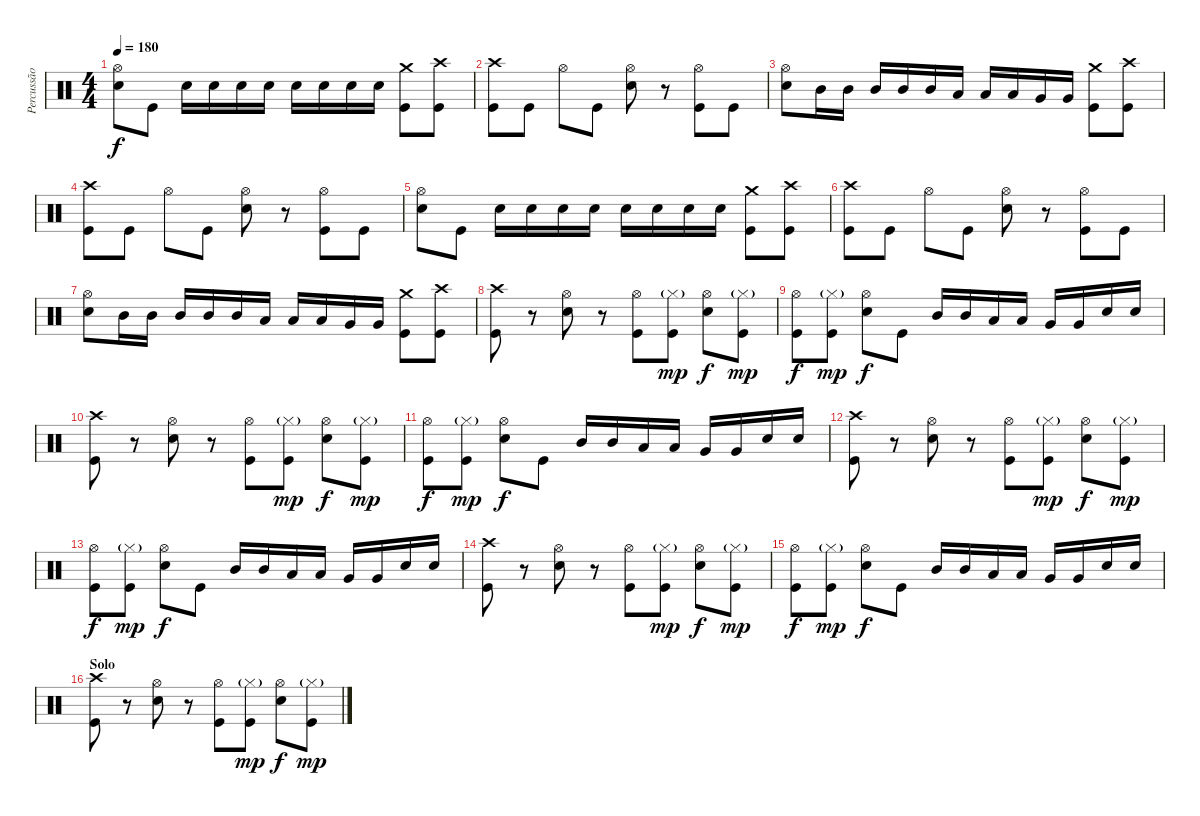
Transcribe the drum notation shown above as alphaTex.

\track ("Percussão" "Percussão") {mute instrument percussion}
\staff {score}
\articulation defaults
\ts (4 4)
\tempo 180
\clef neutral
\ks c
("Hi-Hat (open)" "Electric Snare (hit)").8{dy f} "Kick (hit)".8 "Electric Snare (hit)".16 "Electric Snare (hit)".16 "Electric Snare (hit)".16 "Electric Snare (hit)".16 "Electric Snare (hit)".16 "Electric Snare (hit)".16 "Electric Snare (hit)".16 "Electric Snare (hit)".16 ("Crash medium (hit)" "Kick (hit)").8 ("Crash high (hit)" "Kick (hit)").8 |
("Crash high (hit)" "Kick (hit)").8 "Kick (hit)".8 "Hi-Hat (open)".8 "Kick (hit)".8 ("Hi-Hat (open)" "Electric Snare (hit)").8 r.8 ("Hi-Hat (open)" "Kick (hit)").8 "Kick (hit)".8 |
("Hi-Hat (open)" "Electric Snare (hit)").8 "Mid Tom (hit)".16 "Mid Tom (hit)".16 "Mid Tom (hit)".16 "Mid Tom (hit)".16 "Mid Tom (hit)".16 "Low Tom (hit)".16 "Low Tom (hit)".16 "Low Tom (hit)".16 "Very Low Tom (hit)".16 "Very Low Tom (hit)".16 ("Crash medium (hit)" "Kick (hit)").8 ("Crash high (hit)" "Kick (hit)").8 |
("Crash high (hit)" "Kick (hit)").8 "Kick (hit)".8 "Hi-Hat (open)".8 "Kick (hit)".8 ("Hi-Hat (open)" "Electric Snare (hit)").8 r.8 ("Hi-Hat (open)" "Kick (hit)").8 "Kick (hit)".8 |
("Hi-Hat (open)" "Electric Snare (hit)").8 "Kick (hit)".8 "Electric Snare (hit)".16 "Electric Snare (hit)".16 "Electric Snare (hit)".16 "Electric Snare (hit)".16 "Electric Snare (hit)".16 "Electric Snare (hit)".16 "Electric Snare (hit)".16 "Electric Snare (hit)".16 ("Crash medium (hit)" "Kick (hit)").8 ("Crash high (hit)" "Kick (hit)").8 |
("Crash high (hit)" "Kick (hit)").8 "Kick (hit)".8 "Hi-Hat (open)".8 "Kick (hit)".8 ("Hi-Hat (open)" "Electric Snare (hit)").8 r.8 ("Hi-Hat (open)" "Kick (hit)").8 "Kick (hit)".8 |
("Hi-Hat (open)" "Electric Snare (hit)").8 "Mid Tom (hit)".16 "Mid Tom (hit)".16 "Mid Tom (hit)".16 "Mid Tom (hit)".16 "Mid Tom (hit)".16 "Low Tom (hit)".16 "Low Tom (hit)".16 "Low Tom (hit)".16 "Very Low Tom (hit)".16 "Very Low Tom (hit)".16 ("Crash medium (hit)" "Kick (hit)").8 ("Crash high (hit)" "Kick (hit)").8 |
("Crash high (hit)" "Kick (hit)").8 r.8 ("Hi-Hat (open)" "Electric Snare (hit)").8 r.8 ("Hi-Hat (open)" "Kick (hit)").8 ("Hi-Hat (closed)"{g} "Kick (hit)").8{dy mp} ("Hi-Hat (open)" "Electric Snare (hit)").8{dy f} ("Hi-Hat (closed)"{g} "Kick (hit)").8{dy mp} |
("Hi-Hat (open)" "Kick (hit)").8{dy f} ("Hi-Hat (closed)"{g} "Kick (hit)").8{dy mp} ("Hi-Hat (open)" "Electric Snare (hit)").8{dy f} "Kick (hit)".8 "Mid Tom (hit)".16 "Mid Tom (hit)".16 "Low Tom (hit)".16 "Low Tom (hit)".16 "Very Low Tom (hit)".16 "Very Low Tom (hit)".16 "Electric Snare (hit)".16 "Electric Snare (hit)".16 |
("Crash high (hit)" "Kick (hit)").8 r.8 ("Hi-Hat (open)" "Electric Snare (hit)").8 r.8 ("Hi-Hat (open)" "Kick (hit)").8 ("Hi-Hat (closed)"{g} "Kick (hit)").8{dy mp} ("Hi-Hat (open)" "Electric Snare (hit)").8{dy f} ("Hi-Hat (closed)"{g} "Kick (hit)").8{dy mp} |
("Hi-Hat (open)" "Kick (hit)").8{dy f} ("Hi-Hat (closed)"{g} "Kick (hit)").8{dy mp} ("Hi-Hat (open)" "Electric Snare (hit)").8{dy f} "Kick (hit)".8 "Mid Tom (hit)".16 "Mid Tom (hit)".16 "Low Tom (hit)".16 "Low Tom (hit)".16 "Very Low Tom (hit)".16 "Very Low Tom (hit)".16 "Electric Snare (hit)".16 "Electric Snare (hit)".16 |
("Crash high (hit)" "Kick (hit)").8 r.8 ("Hi-Hat (open)" "Electric Snare (hit)").8 r.8 ("Hi-Hat (open)" "Kick (hit)").8 ("Hi-Hat (closed)"{g} "Kick (hit)").8{dy mp} ("Hi-Hat (open)" "Electric Snare (hit)").8{dy f} ("Hi-Hat (closed)"{g} "Kick (hit)").8{dy mp} |
("Hi-Hat (open)" "Kick (hit)").8{dy f} ("Hi-Hat (closed)"{g} "Kick (hit)").8{dy mp} ("Hi-Hat (open)" "Electric Snare (hit)").8{dy f} "Kick (hit)".8 "Mid Tom (hit)".16 "Mid Tom (hit)".16 "Low Tom (hit)".16 "Low Tom (hit)".16 "Very Low Tom (hit)".16 "Very Low Tom (hit)".16 "Electric Snare (hit)".16 "Electric Snare (hit)".16 |
("Crash high (hit)" "Kick (hit)").8 r.8 ("Hi-Hat (open)" "Electric Snare (hit)").8 r.8 ("Hi-Hat (open)" "Kick (hit)").8 ("Hi-Hat (closed)"{g} "Kick (hit)").8{dy mp} ("Hi-Hat (open)" "Electric Snare (hit)").8{dy f} ("Hi-Hat (closed)"{g} "Kick (hit)").8{dy mp} |
("Hi-Hat (open)" "Kick (hit)").8{dy f} ("Hi-Hat (closed)"{g} "Kick (hit)").8{dy mp} ("Hi-Hat (open)" "Electric Snare (hit)").8{dy f} "Kick (hit)".8 "Mid Tom (hit)".16 "Mid Tom (hit)".16 "Low Tom (hit)".16 "Low Tom (hit)".16 "Very Low Tom (hit)".16 "Very Low Tom (hit)".16 "Electric Snare (hit)".16 "Electric Snare (hit)".16 |
\section ("" "Solo")
("Crash high (hit)" "Kick (hit)").8 r.8 ("Hi-Hat (open)" "Electric Snare (hit)").8 r.8 ("Hi-Hat (open)" "Kick (hit)").8 ("Hi-Hat (closed)"{g} "Kick (hit)").8{dy mp} ("Hi-Hat (open)" "Electric Snare (hit)").8{dy f} ("Hi-Hat (closed)"{g} "Kick (hit)").8{dy mp}
